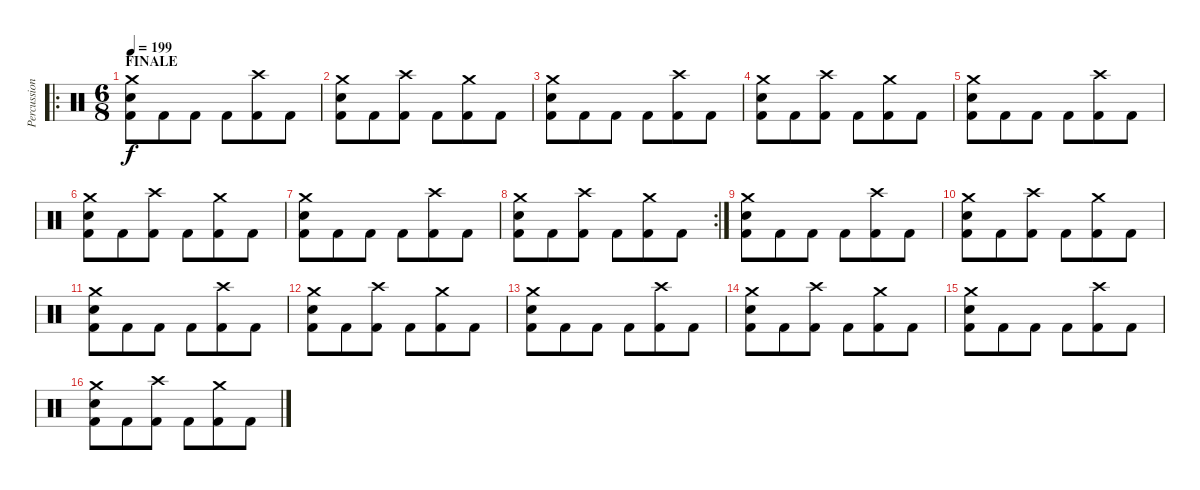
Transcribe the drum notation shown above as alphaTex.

\track ("Percussion" "Percussion") {instrument percussion}
\staff {score}
\articulation defaults
\ro
\ts (6 8)
\section ("" "FINALE")
\tempo 199
\clef neutral
\ks c
("Crash medium (hit)" "Electric Snare (hit)" "Kick (hit) 2").8{dy f} "Kick (hit) 2".8 "Kick (hit) 2".8 "Kick (hit) 2".8 ("Crash high (hit)" "Kick (hit) 2").8 "Kick (hit) 2".8 |
("Crash medium (hit)" "Electric Snare (hit)" "Kick (hit) 2").8 "Kick (hit) 2".8 ("Crash high (hit)" "Kick (hit) 2").8 "Kick (hit) 2".8 ("Crash medium (hit)" "Kick (hit) 2").8 "Kick (hit) 2".8 |
("Crash medium (hit)" "Electric Snare (hit)" "Kick (hit) 2").8 "Kick (hit) 2".8 "Kick (hit) 2".8 "Kick (hit) 2".8 ("Crash high (hit)" "Kick (hit) 2").8 "Kick (hit) 2".8 |
("Crash medium (hit)" "Electric Snare (hit)" "Kick (hit) 2").8 "Kick (hit) 2".8 ("Crash high (hit)" "Kick (hit) 2").8 "Kick (hit) 2".8 ("Crash medium (hit)" "Kick (hit) 2").8 "Kick (hit) 2".8 |
("Crash medium (hit)" "Electric Snare (hit)" "Kick (hit) 2").8 "Kick (hit) 2".8 "Kick (hit) 2".8 "Kick (hit) 2".8 ("Crash high (hit)" "Kick (hit) 2").8 "Kick (hit) 2".8 |
("Crash medium (hit)" "Electric Snare (hit)" "Kick (hit) 2").8 "Kick (hit) 2".8 ("Crash high (hit)" "Kick (hit) 2").8 "Kick (hit) 2".8 ("Crash medium (hit)" "Kick (hit) 2").8 "Kick (hit) 2".8 |
("Crash medium (hit)" "Electric Snare (hit)" "Kick (hit) 2").8 "Kick (hit) 2".8 "Kick (hit) 2".8 "Kick (hit) 2".8 ("Crash high (hit)" "Kick (hit) 2").8 "Kick (hit) 2".8 |
\rc 2
("Crash medium (hit)" "Electric Snare (hit)" "Kick (hit) 2").8 "Kick (hit) 2".8 ("Crash high (hit)" "Kick (hit) 2").8 "Kick (hit) 2".8 ("Crash medium (hit)" "Kick (hit) 2").8 "Kick (hit) 2".8 |
("Crash medium (hit)" "Electric Snare (hit)" "Kick (hit) 2").8 "Kick (hit) 2".8 "Kick (hit) 2".8 "Kick (hit) 2".8 ("Crash high (hit)" "Kick (hit) 2").8 "Kick (hit) 2".8 |
("Crash medium (hit)" "Electric Snare (hit)" "Kick (hit) 2").8 "Kick (hit) 2".8 ("Crash high (hit)" "Kick (hit) 2").8 "Kick (hit) 2".8 ("Crash medium (hit)" "Kick (hit) 2").8 "Kick (hit) 2".8 |
("Crash medium (hit)" "Electric Snare (hit)" "Kick (hit) 2").8 "Kick (hit) 2".8 "Kick (hit) 2".8 "Kick (hit) 2".8 ("Crash high (hit)" "Kick (hit) 2").8 "Kick (hit) 2".8 |
("Crash medium (hit)" "Electric Snare (hit)" "Kick (hit) 2").8 "Kick (hit) 2".8 ("Crash high (hit)" "Kick (hit) 2").8 "Kick (hit) 2".8 ("Crash medium (hit)" "Kick (hit) 2").8 "Kick (hit) 2".8 |
("Crash medium (hit)" "Electric Snare (hit)" "Kick (hit) 2").8 "Kick (hit) 2".8 "Kick (hit) 2".8 "Kick (hit) 2".8 ("Crash high (hit)" "Kick (hit) 2").8 "Kick (hit) 2".8 |
("Crash medium (hit)" "Electric Snare (hit)" "Kick (hit) 2").8 "Kick (hit) 2".8 ("Crash high (hit)" "Kick (hit) 2").8 "Kick (hit) 2".8 ("Crash medium (hit)" "Kick (hit) 2").8 "Kick (hit) 2".8 |
("Crash medium (hit)" "Electric Snare (hit)" "Kick (hit) 2").8 "Kick (hit) 2".8 "Kick (hit) 2".8 "Kick (hit) 2".8 ("Crash high (hit)" "Kick (hit) 2").8 "Kick (hit) 2".8 |
("Crash medium (hit)" "Electric Snare (hit)" "Kick (hit) 2").8 "Kick (hit) 2".8 ("Crash high (hit)" "Kick (hit) 2").8 "Kick (hit) 2".8 ("Crash medium (hit)" "Kick (hit) 2").8 "Kick (hit) 2".8
